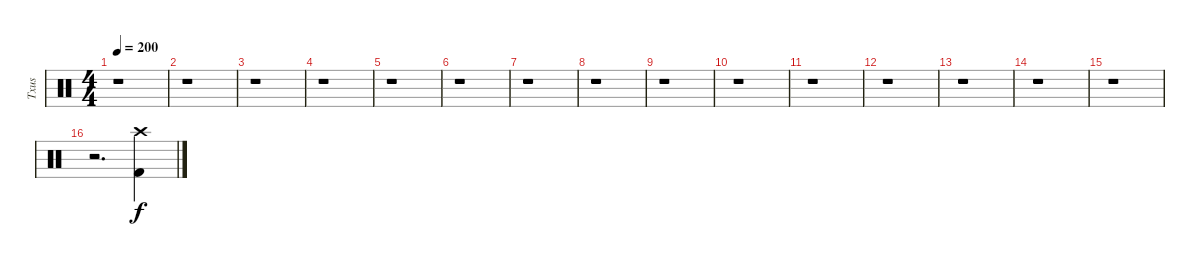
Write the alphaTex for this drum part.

\track ("Txus" "Txus") {instrument percussion}
\staff
\articulation defaults
\ts (4 4)
\tempo 200
\clef neutral
\ks c
r.1{dy f} |
r.1 |
r.1 |
r.1 |
r.1 |
r.1 |
r.1 |
r.1 |
r.1 |
r.1 |
r.1 |
r.1 |
r.1 |
r.1 |
r.1 |
r.2{d} ("Kick (hit) 2" "Crash high (hit)").4{volume 11}
